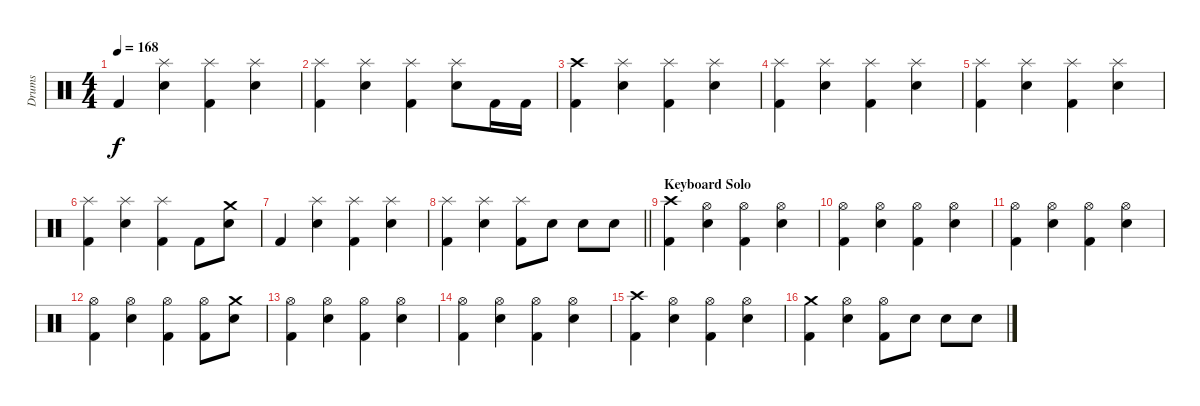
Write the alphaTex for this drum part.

\track ("Drums" "Drums") {instrument percussion}
\staff {score}
\articulation defaults
\ts (4 4)
\tempo 168
\clef neutral
\ks c "Kick (hit) 2".4{dy f}
("Splash (hit)" "Snare (hit) 2").4 ("Splash (hit)" "Kick (hit) 2").4 ("Splash (hit)" "Snare (hit) 2").4 |
("Splash (hit)" "Kick (hit) 2").4 ("Splash (hit)" "Snare (hit) 2").4 ("Splash (hit)" "Kick (hit) 2").4 ("Splash (hit)" "Snare (hit) 2").8 "Kick (hit) 2".16 "Kick (hit) 2".16 |
("Crash high (hit)" "Kick (hit) 2").4 ("Splash (hit)" "Snare (hit) 2").4 ("Splash (hit)" "Kick (hit) 2").4 ("Splash (hit)" "Snare (hit) 2").4 |
("Splash (hit)" "Kick (hit) 2").4 ("Splash (hit)" "Snare (hit) 2").4 ("Splash (hit)" "Kick (hit) 2").4 ("Splash (hit)" "Snare (hit) 2").4 |
("Splash (hit)" "Kick (hit) 2").4 ("Splash (hit)" "Snare (hit) 2").4 ("Splash (hit)" "Kick (hit) 2").4 ("Splash (hit)" "Snare (hit) 2").4 |
("Splash (hit)" "Kick (hit) 2").4 ("Splash (hit)" "Snare (hit) 2").4 ("Splash (hit)" "Kick (hit) 2").4 "Kick (hit) 2".8 ("Crash medium (hit)" "Snare (hit) 2").8 |
"Kick (hit) 2".4 ("Splash (hit)" "Snare (hit) 2").4 ("Splash (hit)" "Kick (hit) 2").4 ("Splash (hit)" "Snare (hit) 2").4 |
\barLineRight lightlight
("Splash (hit)" "Kick (hit) 2").4 ("Splash (hit)" "Snare (hit) 2").4 ("Splash (hit)" "Kick (hit) 2").8 "Snare (hit) 2".8 "Snare (hit) 2".8 "Snare (hit) 2".8 |
\section ("" "Keyboard Solo")
("Crash high (hit)" "Kick (hit) 2").4 ("Hi-Hat (open)" "Snare (hit) 2").4 ("Hi-Hat (open)" "Kick (hit) 2").4 ("Hi-Hat (open)" "Snare (hit) 2").4 |
("Hi-Hat (open)" "Kick (hit) 2").4 ("Hi-Hat (open)" "Snare (hit) 2").4 ("Hi-Hat (open)" "Kick (hit) 2").4 ("Hi-Hat (open)" "Snare (hit) 2").4 |
("Hi-Hat (open)" "Kick (hit) 2").4 ("Hi-Hat (open)" "Snare (hit) 2").4 ("Hi-Hat (open)" "Kick (hit) 2").4 ("Hi-Hat (open)" "Snare (hit) 2").4 |
("Hi-Hat (open)" "Kick (hit) 2").4 ("Hi-Hat (open)" "Snare (hit) 2").4 ("Hi-Hat (open)" "Kick (hit) 2").4 ("Hi-Hat (open)" "Kick (hit) 2").8 ("Crash medium (hit)" "Snare (hit) 2").8 |
("Hi-Hat (open)" "Kick (hit) 2").4 ("Hi-Hat (open)" "Snare (hit) 2").4 ("Hi-Hat (open)" "Kick (hit) 2").4 ("Hi-Hat (open)" "Snare (hit) 2").4 |
("Hi-Hat (open)" "Kick (hit) 2").4 ("Hi-Hat (open)" "Snare (hit) 2").4 ("Hi-Hat (open)" "Kick (hit) 2").4 ("Hi-Hat (open)" "Snare (hit) 2").4 |
("Crash high (hit)" "Kick (hit) 2").4 ("Hi-Hat (open)" "Snare (hit) 2").4 ("Hi-Hat (open)" "Kick (hit) 2").4 ("Hi-Hat (open)" "Snare (hit) 2").4 |
("Crash medium (hit)" "Kick (hit) 2").4 ("Hi-Hat (open)" "Snare (hit) 2").4 ("Hi-Hat (open)" "Kick (hit) 2").8 "Snare (hit) 2".8 "Snare (hit) 2".8 "Snare (hit) 2".8
